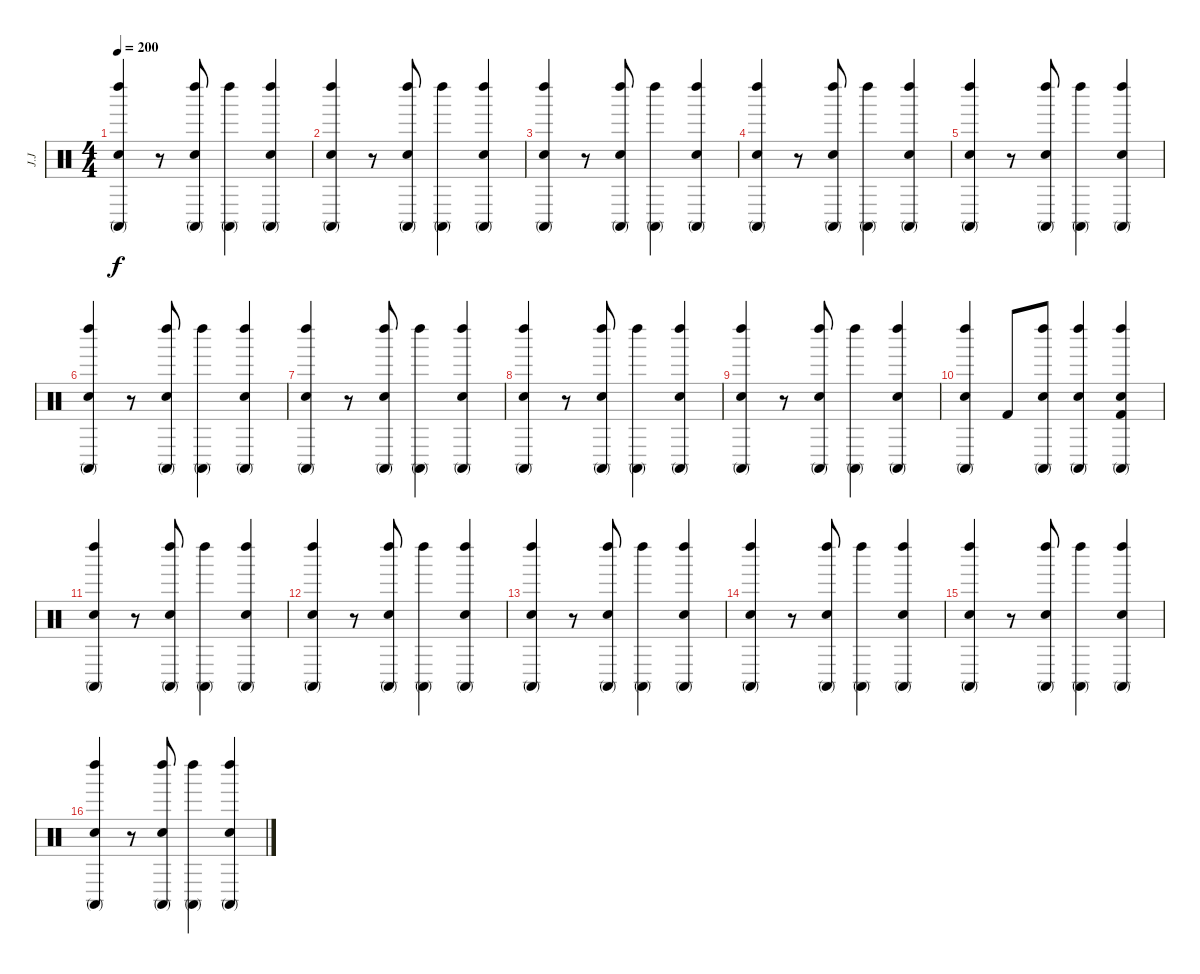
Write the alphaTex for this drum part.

\track ("J.J" "J.J") {instrument percussion}
\staff {score}
\articulation defaults
\ts (4 4)
\tempo 200
\clef neutral
\ks c
("Conga high (mute)" "Left Maraca (hit)" "Snare (hit) 2").4{dy f} r.8 ("Conga high (mute)" "Left Maraca (hit)" "Snare (hit) 2").8 ("Conga high (mute)" "Left Maraca (hit)").4 ("Conga high (mute)" "Left Maraca (hit)" "Snare (hit) 2").4 |
("Conga high (mute)" "Left Maraca (hit)" "Snare (hit) 2").4 r.8 ("Conga high (mute)" "Left Maraca (hit)" "Snare (hit) 2").8 ("Conga high (mute)" "Left Maraca (hit)").4 ("Conga high (mute)" "Left Maraca (hit)" "Snare (hit) 2").4 |
("Conga high (mute)" "Left Maraca (hit)" "Snare (hit) 2").4 r.8 ("Conga high (mute)" "Left Maraca (hit)" "Snare (hit) 2").8 ("Conga high (mute)" "Left Maraca (hit)").4 ("Conga high (mute)" "Left Maraca (hit)" "Snare (hit) 2").4 |
("Conga high (mute)" "Left Maraca (hit)" "Snare (hit) 2").4 r.8 ("Conga high (mute)" "Left Maraca (hit)" "Snare (hit) 2").8 ("Conga high (mute)" "Left Maraca (hit)").4 ("Conga high (mute)" "Left Maraca (hit)" "Snare (hit) 2").4 |
("Conga high (mute)" "Left Maraca (hit)" "Snare (hit) 2").4 r.8 ("Conga high (mute)" "Left Maraca (hit)" "Snare (hit) 2").8 ("Conga high (mute)" "Left Maraca (hit)").4 ("Conga high (mute)" "Left Maraca (hit)" "Snare (hit) 2").4 |
("Conga high (mute)" "Left Maraca (hit)" "Snare (hit) 2").4 r.8 ("Conga high (mute)" "Left Maraca (hit)" "Snare (hit) 2").8 ("Conga high (mute)" "Left Maraca (hit)").4 ("Conga high (mute)" "Left Maraca (hit)" "Snare (hit) 2").4 |
("Conga high (mute)" "Left Maraca (hit)" "Snare (hit) 2").4 r.8 ("Conga high (mute)" "Left Maraca (hit)" "Snare (hit) 2").8 ("Conga high (mute)" "Left Maraca (hit)").4 ("Conga high (mute)" "Left Maraca (hit)" "Snare (hit) 2").4 |
("Conga high (mute)" "Left Maraca (hit)" "Snare (hit) 2").4 r.8 ("Conga high (mute)" "Left Maraca (hit)" "Snare (hit) 2").8 ("Conga high (mute)" "Left Maraca (hit)").4 ("Conga high (mute)" "Left Maraca (hit)" "Snare (hit) 2").4 |
("Conga high (mute)" "Left Maraca (hit)" "Snare (hit) 2").4 r.8 ("Conga high (mute)" "Left Maraca (hit)" "Snare (hit) 2").8 ("Conga high (mute)" "Left Maraca (hit)").4 ("Conga high (mute)" "Left Maraca (hit)" "Snare (hit) 2").4 |
("Conga high (mute)" "Left Maraca (hit)" "Snare (hit) 2").4 "Kick (hit) 2".8 ("Conga high (mute)" "Left Maraca (hit)" "Snare (hit) 2").8 ("Conga high (mute)" "Left Maraca (hit)" "Snare (hit) 2").4 ("Conga high (mute)" "Left Maraca (hit)" "Kick (hit) 2" "Snare (hit) 2").4 |
("Conga high (mute)" "Left Maraca (hit)" "Snare (hit) 2").4 r.8 ("Conga high (mute)" "Left Maraca (hit)" "Snare (hit) 2").8 ("Conga high (mute)" "Left Maraca (hit)").4 ("Conga high (mute)" "Left Maraca (hit)" "Snare (hit) 2").4 |
("Conga high (mute)" "Left Maraca (hit)" "Snare (hit) 2").4 r.8 ("Conga high (mute)" "Left Maraca (hit)" "Snare (hit) 2").8 ("Conga high (mute)" "Left Maraca (hit)").4 ("Conga high (mute)" "Left Maraca (hit)" "Snare (hit) 2").4 |
("Conga high (mute)" "Left Maraca (hit)" "Snare (hit) 2").4 r.8 ("Conga high (mute)" "Left Maraca (hit)" "Snare (hit) 2").8 ("Conga high (mute)" "Left Maraca (hit)").4 ("Conga high (mute)" "Left Maraca (hit)" "Snare (hit) 2").4 |
("Conga high (mute)" "Left Maraca (hit)" "Snare (hit) 2").4 r.8 ("Conga high (mute)" "Left Maraca (hit)" "Snare (hit) 2").8 ("Conga high (mute)" "Left Maraca (hit)").4 ("Conga high (mute)" "Left Maraca (hit)" "Snare (hit) 2").4 |
("Conga high (mute)" "Left Maraca (hit)" "Snare (hit) 2").4 r.8 ("Conga high (mute)" "Left Maraca (hit)" "Snare (hit) 2").8 ("Conga high (mute)" "Left Maraca (hit)").4 ("Conga high (mute)" "Left Maraca (hit)" "Snare (hit) 2").4 |
("Conga high (mute)" "Left Maraca (hit)" "Snare (hit) 2").4 r.8 ("Conga high (mute)" "Left Maraca (hit)" "Snare (hit) 2").8 ("Conga high (mute)" "Left Maraca (hit)").4 ("Conga high (mute)" "Left Maraca (hit)" "Snare (hit) 2").4
